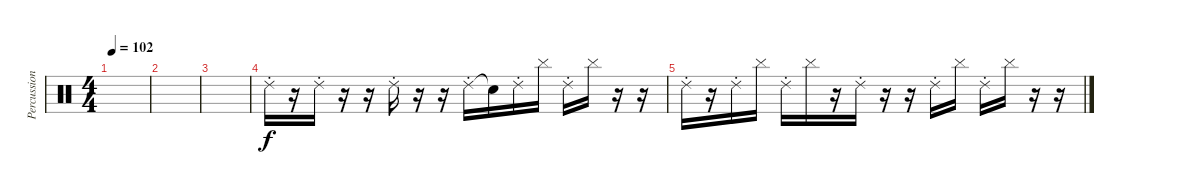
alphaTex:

\track ("Percussions 1" "Percussion") {instrument percussion}
\staff {score}
\articulation defaults
\ts (4 4)
\tempo 102
\clef neutral
\ks c
|
|
|
"Ride (choke) 2".16{volume 12} r.16 "Ride (choke) 2".16 r.16 r.16 "Ride (choke) 2".16 r.16 r.16 "Ride (choke) 2".16 "Snare (hit)"{t}.16 "Ride (choke) 2".16 "Cymbal (hit)".16 "Ride (choke) 2".16 "Cymbal (hit)".16 r.16 r.16 |
"Ride (choke) 2".16{volume 12} r.16 "Ride (choke) 2".16 "Cymbal (hit)".16 "Ride (choke) 2".16 "Cymbal (hit)".16 r.16 "Ride (choke) 2".16 r.16 r.16 "Ride (choke) 2".16 "Cymbal (hit)".16 "Ride (choke) 2".16 "Cymbal (hit)".16 r.16 r.16
